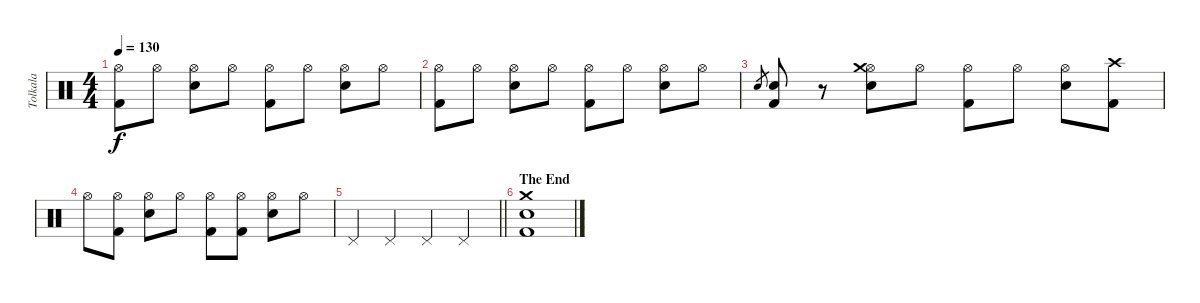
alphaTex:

\track ("Tolkala" "Tolkala") {instrument percussion}
\staff {score}
\articulation defaults
\ts (4 4)
\tempo 130
\clef neutral
\ks c
("Hi-Hat (open)" "Kick (hit) 2").8{dy f} "Hi-Hat (open)".8 ("Hi-Hat (open)" "Snare (hit) 2").8 "Hi-Hat (open)".8 ("Hi-Hat (open)" "Kick (hit) 2").8 "Hi-Hat (open)".8 ("Hi-Hat (open)" "Snare (hit) 2").8 "Hi-Hat (open)".8 |
("Hi-Hat (open)" "Kick (hit) 2").8 "Hi-Hat (open)".8 ("Hi-Hat (open)" "Snare (hit) 2").8 "Hi-Hat (open)".8 ("Hi-Hat (open)" "Kick (hit) 2").8 "Hi-Hat (open)".8 ("Hi-Hat (open)" "Snare (hit) 2").8 "Hi-Hat (open)".8 |
"Snare (hit) 2".8{gr} ("Snare (hit) 2" "Kick (hit) 2").8 r.8 ("Hi-Hat (open)" "Crash medium (hit)" "Snare (hit) 2").8 "Hi-Hat (open)".8 ("Hi-Hat (open)" "Kick (hit) 2").8 "Hi-Hat (open)".8 ("Hi-Hat (open)" "Snare (hit) 2").8 ("Crash high (hit)" "Kick (hit) 2").8 |
"Hi-Hat (open)".8 ("Hi-Hat (open)" "Kick (hit) 2").8 ("Hi-Hat (open)" "Snare (hit) 2").8 "Hi-Hat (open)".8 ("Hi-Hat (open)" "Kick (hit) 2").8 ("Hi-Hat (open)" "Kick (hit) 2").8 ("Hi-Hat (open)" "Snare (hit) 2").8 "Hi-Hat (open)".8 |
\barLineRight lightlight "Pedal Hi-Hat (hit)".4 "Pedal Hi-Hat (hit)".4 "Pedal Hi-Hat (hit)".4 "Pedal Hi-Hat (hit)".4
|
\section ("" "The End")
("Crash medium (hit)" "Snare (hit) 2" "Kick (hit) 2").1
